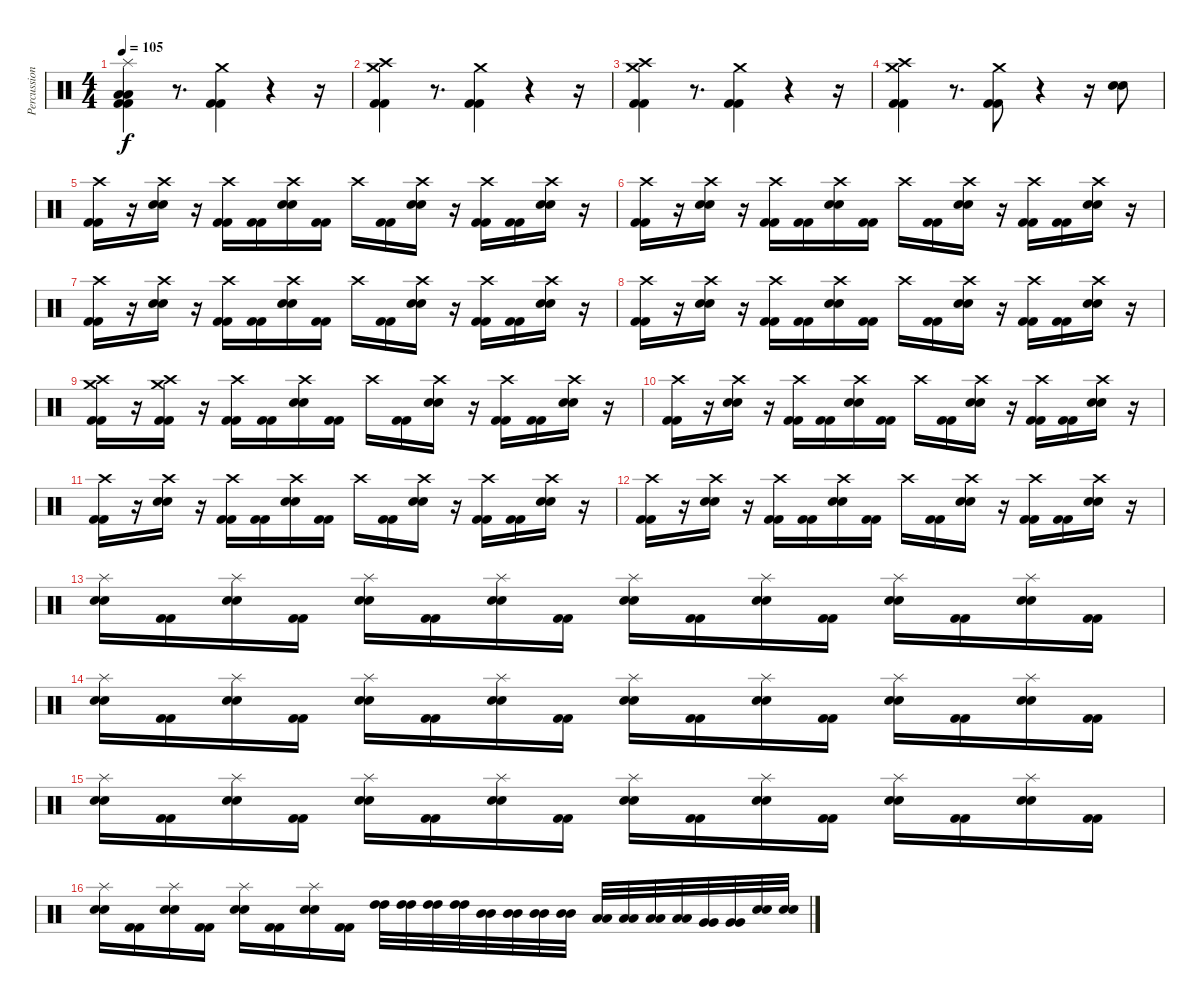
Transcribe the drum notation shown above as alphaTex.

\track ("Percussions" "Percussion") {instrument percussion}
\staff {score}
\articulation defaults
\ts (4 4)
\tempo 105
\clef neutral
\ks c
("Splash (hit)" "Low Floor Tom (hit)" "Low Floor Tom (hit)" "Kick (hit) 2" "Kick (hit) 2").4{dy f} r.8{d} ("Crash medium (hit)" "Kick (hit) 2" "Kick (hit) 2").4 r.4 r.16 |
("Crash medium (hit)" "Crash high (hit)" "Kick (hit) 2" "Kick (hit) 2").4 r.8{d} ("Crash medium (hit)" "Kick (hit) 2" "Kick (hit) 2").4 r.4 r.16 |
("Crash medium (hit)" "Crash high (hit)" "Kick (hit) 2" "Kick (hit) 2").4 r.8{d} ("Crash medium (hit)" "Kick (hit) 2" "Kick (hit) 2").4 r.4 r.16 |
("Crash medium (hit)" "Crash high (hit)" "Kick (hit) 2" "Kick (hit) 2").4 r.8{d} ("Crash medium (hit)" "Kick (hit) 2" "Kick (hit) 2").8 r.4 r.16 ("Electric Snare (hit)" "Electric Snare (hit)").8 |
("Crash high (hit)" "Kick (hit) 2" "Kick (hit) 2").16 r.16 ("Crash high (hit)" "Electric Snare (hit)" "Electric Snare (hit)").16 r.16 ("Crash high (hit)" "Kick (hit) 2" "Kick (hit) 2").16 ("Kick (hit) 2" "Kick (hit) 2").16 ("Crash high (hit)" "Electric Snare (hit)" "Electric Snare (hit)").16 ("Kick (hit) 2" "Kick (hit) 2").16 "Crash high (hit)".16 ("Kick (hit) 2" "Kick (hit) 2").16 ("Crash high (hit)" "Electric Snare (hit)" "Electric Snare (hit)").16 r.16 ("Crash high (hit)" "Kick (hit) 2" "Kick (hit) 2").16 ("Kick (hit) 2" "Kick (hit) 2").16 ("Crash high (hit)" "Electric Snare (hit)" "Electric Snare (hit)").16 r.16 |
("Crash high (hit)" "Kick (hit) 2" "Kick (hit) 2").16 r.16 ("Crash high (hit)" "Electric Snare (hit)" "Electric Snare (hit)").16 r.16 ("Crash high (hit)" "Kick (hit) 2" "Kick (hit) 2").16 ("Kick (hit) 2" "Kick (hit) 2").16 ("Crash high (hit)" "Electric Snare (hit)" "Electric Snare (hit)").16 ("Kick (hit) 2" "Kick (hit) 2").16 "Crash high (hit)".16 ("Kick (hit) 2" "Kick (hit) 2").16 ("Crash high (hit)" "Electric Snare (hit)" "Electric Snare (hit)").16 r.16 ("Crash high (hit)" "Kick (hit) 2" "Kick (hit) 2").16 ("Kick (hit) 2" "Kick (hit) 2").16 ("Crash high (hit)" "Electric Snare (hit)" "Electric Snare (hit)").16 r.16 |
("Crash high (hit)" "Kick (hit) 2" "Kick (hit) 2").16 r.16 ("Crash high (hit)" "Electric Snare (hit)" "Electric Snare (hit)").16 r.16 ("Crash high (hit)" "Kick (hit) 2" "Kick (hit) 2").16 ("Kick (hit) 2" "Kick (hit) 2").16 ("Crash high (hit)" "Electric Snare (hit)" "Electric Snare (hit)").16 ("Kick (hit) 2" "Kick (hit) 2").16 "Crash high (hit)".16 ("Kick (hit) 2" "Kick (hit) 2").16 ("Crash high (hit)" "Electric Snare (hit)" "Electric Snare (hit)").16 r.16 ("Crash high (hit)" "Kick (hit) 2" "Kick (hit) 2").16 ("Kick (hit) 2" "Kick (hit) 2").16 ("Crash high (hit)" "Electric Snare (hit)" "Electric Snare (hit)").16 r.16 |
("Crash high (hit)" "Kick (hit) 2" "Kick (hit) 2").16 r.16 ("Crash high (hit)" "Electric Snare (hit)" "Electric Snare (hit)").16 r.16 ("Crash high (hit)" "Kick (hit) 2" "Kick (hit) 2").16 ("Kick (hit) 2" "Kick (hit) 2").16 ("Crash high (hit)" "Electric Snare (hit)" "Electric Snare (hit)").16 ("Kick (hit) 2" "Kick (hit) 2").16 "Crash high (hit)".16 ("Kick (hit) 2" "Kick (hit) 2").16 ("Crash high (hit)" "Electric Snare (hit)" "Electric Snare (hit)").16 r.16 ("Crash high (hit)" "Kick (hit) 2" "Kick (hit) 2").16 ("Kick (hit) 2" "Kick (hit) 2").16 ("Crash high (hit)" "Electric Snare (hit)" "Electric Snare (hit)").16 r.16 |
("Crash high (hit)" "Crash medium (hit)" "Kick (hit) 2" "Kick (hit) 2").16 r.16 ("Crash high (hit)" "Crash medium (hit)" "Kick (hit) 2" "Kick (hit) 2").16 r.16 ("Crash high (hit)" "Kick (hit) 2" "Kick (hit) 2").16 ("Kick (hit) 2" "Kick (hit) 2").16 ("Crash high (hit)" "Electric Snare (hit)" "Electric Snare (hit)").16 ("Kick (hit) 2" "Kick (hit) 2").16 "Crash high (hit)".16 ("Kick (hit) 2" "Kick (hit) 2").16 ("Crash high (hit)" "Electric Snare (hit)" "Electric Snare (hit)").16 r.16 ("Crash high (hit)" "Kick (hit) 2" "Kick (hit) 2").16 ("Kick (hit) 2" "Kick (hit) 2").16 ("Crash high (hit)" "Electric Snare (hit)" "Electric Snare (hit)").16 r.16 |
("Crash high (hit)" "Kick (hit) 2" "Kick (hit) 2").16 r.16 ("Crash high (hit)" "Electric Snare (hit)" "Electric Snare (hit)").16 r.16 ("Crash high (hit)" "Kick (hit) 2" "Kick (hit) 2").16 ("Kick (hit) 2" "Kick (hit) 2").16 ("Crash high (hit)" "Electric Snare (hit)" "Electric Snare (hit)").16 ("Kick (hit) 2" "Kick (hit) 2").16 "Crash high (hit)".16 ("Kick (hit) 2" "Kick (hit) 2").16 ("Crash high (hit)" "Electric Snare (hit)" "Electric Snare (hit)").16 r.16 ("Crash high (hit)" "Kick (hit) 2" "Kick (hit) 2").16 ("Kick (hit) 2" "Kick (hit) 2").16 ("Crash high (hit)" "Electric Snare (hit)" "Electric Snare (hit)").16 r.16 |
("Crash high (hit)" "Kick (hit) 2" "Kick (hit) 2").16 r.16 ("Crash high (hit)" "Electric Snare (hit)" "Electric Snare (hit)").16 r.16 ("Crash high (hit)" "Kick (hit) 2" "Kick (hit) 2").16 ("Kick (hit) 2" "Kick (hit) 2").16 ("Crash high (hit)" "Electric Snare (hit)" "Electric Snare (hit)").16 ("Kick (hit) 2" "Kick (hit) 2").16 "Crash high (hit)".16 ("Kick (hit) 2" "Kick (hit) 2").16 ("Crash high (hit)" "Electric Snare (hit)" "Electric Snare (hit)").16 r.16 ("Crash high (hit)" "Kick (hit) 2" "Kick (hit) 2").16 ("Kick (hit) 2" "Kick (hit) 2").16 ("Crash high (hit)" "Electric Snare (hit)" "Electric Snare (hit)").16 r.16 |
("Crash high (hit)" "Kick (hit) 2" "Kick (hit) 2").16 r.16 ("Crash high (hit)" "Electric Snare (hit)" "Electric Snare (hit)").16 r.16 ("Crash high (hit)" "Kick (hit) 2" "Kick (hit) 2").16 ("Kick (hit) 2" "Kick (hit) 2").16 ("Crash high (hit)" "Electric Snare (hit)" "Electric Snare (hit)").16 ("Kick (hit) 2" "Kick (hit) 2").16 "Crash high (hit)".16 ("Kick (hit) 2" "Kick (hit) 2").16 ("Crash high (hit)" "Electric Snare (hit)" "Electric Snare (hit)").16 r.16 ("Crash high (hit)" "Kick (hit) 2" "Kick (hit) 2").16 ("Kick (hit) 2" "Kick (hit) 2").16 ("Crash high (hit)" "Electric Snare (hit)" "Electric Snare (hit)").16 r.16 |
("Splash (hit)" "Electric Snare (hit)" "Electric Snare (hit)").16 ("Kick (hit) 2" "Kick (hit) 2").16 ("Splash (hit)" "Electric Snare (hit)" "Electric Snare (hit)").16 ("Kick (hit) 2" "Kick (hit) 2").16 ("Splash (hit)" "Electric Snare (hit)" "Electric Snare (hit)").16 ("Kick (hit) 2" "Kick (hit) 2").16 ("Splash (hit)" "Electric Snare (hit)" "Electric Snare (hit)").16 ("Kick (hit) 2" "Kick (hit) 2").16 ("Splash (hit)" "Electric Snare (hit)" "Electric Snare (hit)").16 ("Kick (hit) 2" "Kick (hit) 2").16 ("Splash (hit)" "Electric Snare (hit)" "Electric Snare (hit)").16 ("Kick (hit) 2" "Kick (hit) 2").16 ("Splash (hit)" "Electric Snare (hit)" "Electric Snare (hit)").16 ("Kick (hit) 2" "Kick (hit) 2").16 ("Splash (hit)" "Electric Snare (hit)" "Electric Snare (hit)").16 ("Kick (hit) 2" "Kick (hit) 2").16 |
("Splash (hit)" "Electric Snare (hit)" "Electric Snare (hit)").16 ("Kick (hit) 2" "Kick (hit) 2").16 ("Splash (hit)" "Electric Snare (hit)" "Electric Snare (hit)").16 ("Kick (hit) 2" "Kick (hit) 2").16 ("Splash (hit)" "Electric Snare (hit)" "Electric Snare (hit)").16 ("Kick (hit) 2" "Kick (hit) 2").16 ("Splash (hit)" "Electric Snare (hit)" "Electric Snare (hit)").16 ("Kick (hit) 2" "Kick (hit) 2").16 ("Splash (hit)" "Electric Snare (hit)" "Electric Snare (hit)").16 ("Kick (hit) 2" "Kick (hit) 2").16 ("Splash (hit)" "Electric Snare (hit)" "Electric Snare (hit)").16 ("Kick (hit) 2" "Kick (hit) 2").16 ("Splash (hit)" "Electric Snare (hit)" "Electric Snare (hit)").16 ("Kick (hit) 2" "Kick (hit) 2").16 ("Splash (hit)" "Electric Snare (hit)" "Electric Snare (hit)").16 ("Kick (hit) 2" "Kick (hit) 2").16 |
("Splash (hit)" "Electric Snare (hit)" "Electric Snare (hit)").16 ("Kick (hit) 2" "Kick (hit) 2").16 ("Splash (hit)" "Electric Snare (hit)" "Electric Snare (hit)").16 ("Kick (hit) 2" "Kick (hit) 2").16 ("Splash (hit)" "Electric Snare (hit)" "Electric Snare (hit)").16 ("Kick (hit) 2" "Kick (hit) 2").16 ("Splash (hit)" "Electric Snare (hit)" "Electric Snare (hit)").16 ("Kick (hit) 2" "Kick (hit) 2").16 ("Splash (hit)" "Electric Snare (hit)" "Electric Snare (hit)").16 ("Kick (hit) 2" "Kick (hit) 2").16 ("Splash (hit)" "Electric Snare (hit)" "Electric Snare (hit)").16 ("Kick (hit) 2" "Kick (hit) 2").16 ("Splash (hit)" "Electric Snare (hit)" "Electric Snare (hit)").16 ("Kick (hit) 2" "Kick (hit) 2").16 ("Splash (hit)" "Electric Snare (hit)" "Electric Snare (hit)").16 ("Kick (hit) 2" "Kick (hit) 2").16 |
("Splash (hit)" "Electric Snare (hit)" "Electric Snare (hit)").16 ("Kick (hit) 2" "Kick (hit) 2").16 ("Splash (hit)" "Electric Snare (hit)" "Electric Snare (hit)").16 ("Kick (hit) 2" "Kick (hit) 2").16 ("Splash (hit)" "Electric Snare (hit)" "Electric Snare (hit)").16 ("Kick (hit) 2" "Kick (hit) 2").16 ("Splash (hit)" "Electric Snare (hit)" "Electric Snare (hit)").16 ("Kick (hit) 2" "Kick (hit) 2").16 ("High Tom (hit)" "High Tom (hit)").32 ("High Tom (hit)" "High Tom (hit)").32 ("High Tom (hit)" "High Tom (hit)").32 ("High Tom (hit)" "High Tom (hit)").32 ("Mid Tom (hit)" "Mid Tom (hit)").32 ("Mid Tom (hit)" "Mid Tom (hit)").32 ("Mid Tom (hit)" "Mid Tom (hit)").32 ("Mid Tom (hit)" "Mid Tom (hit)").32 ("Low Tom (hit)" "Low Tom (hit)").32 ("Low Tom (hit)" "Low Tom (hit)").32 ("Low Tom (hit)" "Low Tom (hit)").32 ("Low Tom (hit)" "Low Tom (hit)").32 ("Very Low Tom (hit)" "Very Low Tom (hit)").32 ("Very Low Tom (hit)" "Very Low Tom (hit)").32 ("Electric Snare (hit)" "Electric Snare (hit)").32 ("Electric Snare (hit)" "Electric Snare (hit)").32
